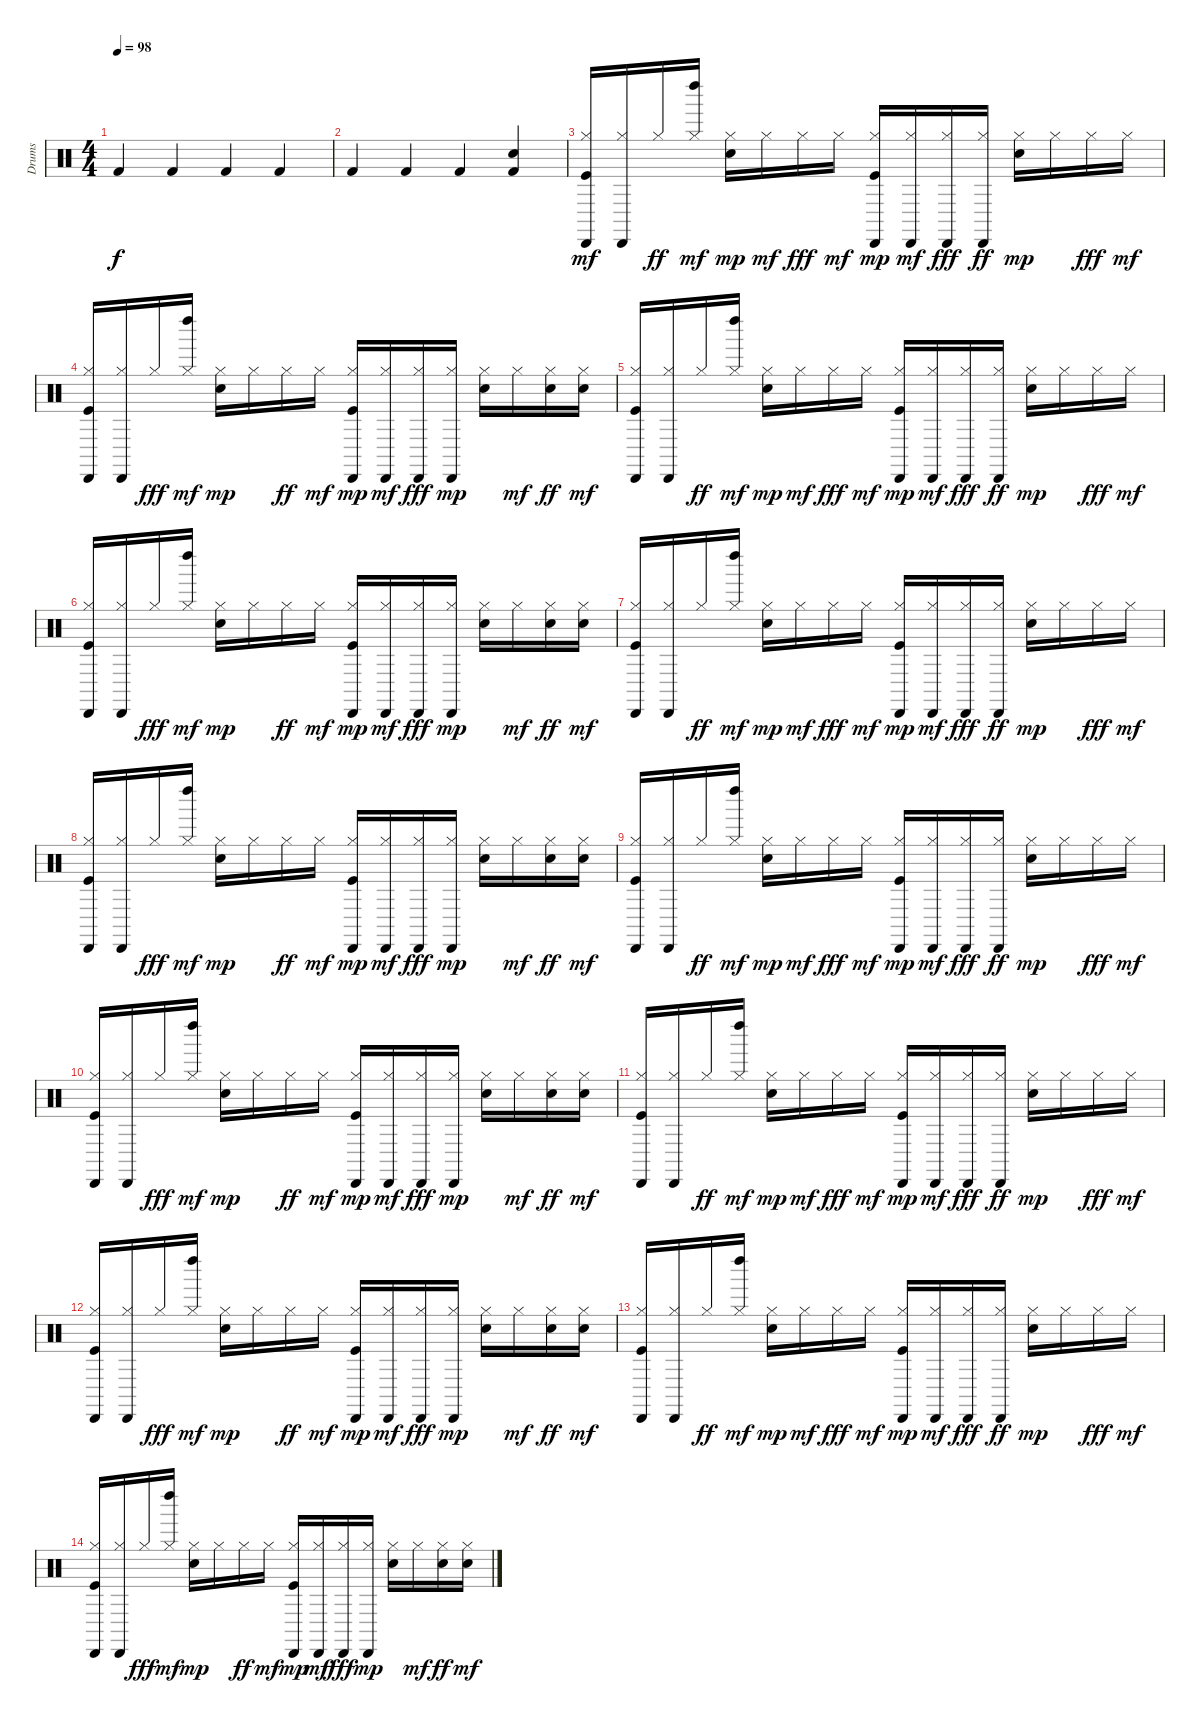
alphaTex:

\track ("Drums" "Drums") {instrument percussion}
\staff {score}
\articulation defaults
\ts (4 4)
\tempo 98
\clef neutral
\ks c "Kick (hit) 2".4{dy f} "Kick (hit) 2".4 "Kick (hit) 2".4 "Kick (hit) 2".4
|
"Kick (hit) 2".4 "Kick (hit) 2".4 "Kick (hit) 2".4 ("Kick (hit) 2" "Snare (hit) 2").4 |
("Kick (hit)" "Hi-Hat (closed)" "Cabasa (hit)").16{dy mf} ("Hi-Hat (closed)" "Cabasa (hit)").16 "Hi-Hat (closed)".16{dy ff} ("Hi-Hat (closed)" "Left Maraca (hit)").16{dy mf} ("Snare (hit) 2" "Hi-Hat (closed)").16{dy mp} "Hi-Hat (closed)".16{dy mf} "Hi-Hat (closed)".16{dy fff} "Hi-Hat (closed)".16{dy mf} ("Kick (hit)" "Cabasa (hit)" "Hi-Hat (closed)").16{dy mp} ("Cabasa (hit)" "Hi-Hat (closed)").16{dy mf} ("Hi-Hat (closed)" "Cabasa (hit)").16{dy fff} ("Hi-Hat (closed)" "Cabasa (hit)").16{dy ff} ("Snare (hit) 2" "Hi-Hat (closed)").16{dy mp} "Hi-Hat (closed)".16 "Hi-Hat (closed)".16{dy fff} "Hi-Hat (closed)".16{dy mf} |
("Kick (hit)" "Hi-Hat (closed)" "Cabasa (hit)").16 ("Hi-Hat (closed)" "Cabasa (hit)").16 "Hi-Hat (closed)".16{dy fff} ("Hi-Hat (closed)" "Left Maraca (hit)").16{dy mf} ("Snare (hit) 2" "Hi-Hat (closed)").16{dy mp} "Hi-Hat (closed)".16 "Hi-Hat (closed)".16{dy ff} "Hi-Hat (closed)".16{dy mf} ("Kick (hit)" "Cabasa (hit)" "Hi-Hat (closed)").16{dy mp} ("Cabasa (hit)" "Hi-Hat (closed)").16{dy mf} ("Hi-Hat (closed)" "Cabasa (hit)").16{dy fff} ("Cabasa (hit)" "Hi-Hat (closed)").16{dy mp} ("Snare (hit) 2" "Hi-Hat (closed)").16 "Hi-Hat (closed)".16{dy mf} ("Snare (hit) 2" "Hi-Hat (closed)").16{dy ff} ("Snare (hit) 2" "Hi-Hat (closed)").16{dy mf} |
("Kick (hit)" "Hi-Hat (closed)" "Cabasa (hit)").16 ("Hi-Hat (closed)" "Cabasa (hit)").16 "Hi-Hat (closed)".16{dy ff} ("Hi-Hat (closed)" "Left Maraca (hit)").16{dy mf} ("Snare (hit) 2" "Hi-Hat (closed)").16{dy mp} "Hi-Hat (closed)".16{dy mf} "Hi-Hat (closed)".16{dy fff} "Hi-Hat (closed)".16{dy mf} ("Kick (hit)" "Cabasa (hit)" "Hi-Hat (closed)").16{dy mp} ("Cabasa (hit)" "Hi-Hat (closed)").16{dy mf} ("Hi-Hat (closed)" "Cabasa (hit)").16{dy fff} ("Hi-Hat (closed)" "Cabasa (hit)").16{dy ff} ("Snare (hit) 2" "Hi-Hat (closed)").16{dy mp} "Hi-Hat (closed)".16 "Hi-Hat (closed)".16{dy fff} "Hi-Hat (closed)".16{dy mf} |
("Kick (hit)" "Hi-Hat (closed)" "Cabasa (hit)").16 ("Hi-Hat (closed)" "Cabasa (hit)").16 "Hi-Hat (closed)".16{dy fff} ("Hi-Hat (closed)" "Left Maraca (hit)").16{dy mf} ("Snare (hit) 2" "Hi-Hat (closed)").16{dy mp} "Hi-Hat (closed)".16 "Hi-Hat (closed)".16{dy ff} "Hi-Hat (closed)".16{dy mf} ("Kick (hit)" "Cabasa (hit)" "Hi-Hat (closed)").16{dy mp} ("Cabasa (hit)" "Hi-Hat (closed)").16{dy mf} ("Hi-Hat (closed)" "Cabasa (hit)").16{dy fff} ("Cabasa (hit)" "Hi-Hat (closed)").16{dy mp} ("Snare (hit) 2" "Hi-Hat (closed)").16 "Hi-Hat (closed)".16{dy mf} ("Snare (hit) 2" "Hi-Hat (closed)").16{dy ff} ("Snare (hit) 2" "Hi-Hat (closed)").16{dy mf} |
("Kick (hit)" "Hi-Hat (closed)" "Cabasa (hit)").16 ("Hi-Hat (closed)" "Cabasa (hit)").16 "Hi-Hat (closed)".16{dy ff} ("Hi-Hat (closed)" "Left Maraca (hit)").16{dy mf} ("Snare (hit) 2" "Hi-Hat (closed)").16{dy mp} "Hi-Hat (closed)".16{dy mf} "Hi-Hat (closed)".16{dy fff} "Hi-Hat (closed)".16{dy mf} ("Kick (hit)" "Cabasa (hit)" "Hi-Hat (closed)").16{dy mp} ("Cabasa (hit)" "Hi-Hat (closed)").16{dy mf} ("Hi-Hat (closed)" "Cabasa (hit)").16{dy fff} ("Hi-Hat (closed)" "Cabasa (hit)").16{dy ff} ("Snare (hit) 2" "Hi-Hat (closed)").16{dy mp} "Hi-Hat (closed)".16 "Hi-Hat (closed)".16{dy fff} "Hi-Hat (closed)".16{dy mf} |
("Kick (hit)" "Hi-Hat (closed)" "Cabasa (hit)").16 ("Hi-Hat (closed)" "Cabasa (hit)").16 "Hi-Hat (closed)".16{dy fff} ("Hi-Hat (closed)" "Left Maraca (hit)").16{dy mf} ("Snare (hit) 2" "Hi-Hat (closed)").16{dy mp} "Hi-Hat (closed)".16 "Hi-Hat (closed)".16{dy ff} "Hi-Hat (closed)".16{dy mf} ("Kick (hit)" "Cabasa (hit)" "Hi-Hat (closed)").16{dy mp} ("Cabasa (hit)" "Hi-Hat (closed)").16{dy mf} ("Hi-Hat (closed)" "Cabasa (hit)").16{dy fff} ("Cabasa (hit)" "Hi-Hat (closed)").16{dy mp} ("Snare (hit) 2" "Hi-Hat (closed)").16 "Hi-Hat (closed)".16{dy mf} ("Snare (hit) 2" "Hi-Hat (closed)").16{dy ff} ("Snare (hit) 2" "Hi-Hat (closed)").16{dy mf} |
("Kick (hit)" "Hi-Hat (closed)" "Cabasa (hit)").16 ("Hi-Hat (closed)" "Cabasa (hit)").16 "Hi-Hat (closed)".16{dy ff} ("Hi-Hat (closed)" "Left Maraca (hit)").16{dy mf} ("Snare (hit) 2" "Hi-Hat (closed)").16{dy mp} "Hi-Hat (closed)".16{dy mf} "Hi-Hat (closed)".16{dy fff} "Hi-Hat (closed)".16{dy mf} ("Kick (hit)" "Cabasa (hit)" "Hi-Hat (closed)").16{dy mp} ("Cabasa (hit)" "Hi-Hat (closed)").16{dy mf} ("Hi-Hat (closed)" "Cabasa (hit)").16{dy fff} ("Hi-Hat (closed)" "Cabasa (hit)").16{dy ff} ("Snare (hit) 2" "Hi-Hat (closed)").16{dy mp} "Hi-Hat (closed)".16 "Hi-Hat (closed)".16{dy fff} "Hi-Hat (closed)".16{dy mf} |
("Kick (hit)" "Hi-Hat (closed)" "Cabasa (hit)").16 ("Hi-Hat (closed)" "Cabasa (hit)").16 "Hi-Hat (closed)".16{dy fff} ("Hi-Hat (closed)" "Left Maraca (hit)").16{dy mf} ("Snare (hit) 2" "Hi-Hat (closed)").16{dy mp} "Hi-Hat (closed)".16 "Hi-Hat (closed)".16{dy ff} "Hi-Hat (closed)".16{dy mf} ("Kick (hit)" "Cabasa (hit)" "Hi-Hat (closed)").16{dy mp} ("Cabasa (hit)" "Hi-Hat (closed)").16{dy mf} ("Hi-Hat (closed)" "Cabasa (hit)").16{dy fff} ("Cabasa (hit)" "Hi-Hat (closed)").16{dy mp} ("Snare (hit) 2" "Hi-Hat (closed)").16 "Hi-Hat (closed)".16{dy mf} ("Snare (hit) 2" "Hi-Hat (closed)").16{dy ff} ("Snare (hit) 2" "Hi-Hat (closed)").16{dy mf} |
("Kick (hit)" "Hi-Hat (closed)" "Cabasa (hit)").16 ("Hi-Hat (closed)" "Cabasa (hit)").16 "Hi-Hat (closed)".16{dy ff} ("Hi-Hat (closed)" "Left Maraca (hit)").16{dy mf} ("Snare (hit) 2" "Hi-Hat (closed)").16{dy mp} "Hi-Hat (closed)".16{dy mf} "Hi-Hat (closed)".16{dy fff} "Hi-Hat (closed)".16{dy mf} ("Kick (hit)" "Cabasa (hit)" "Hi-Hat (closed)").16{dy mp} ("Cabasa (hit)" "Hi-Hat (closed)").16{dy mf} ("Hi-Hat (closed)" "Cabasa (hit)").16{dy fff} ("Hi-Hat (closed)" "Cabasa (hit)").16{dy ff} ("Snare (hit) 2" "Hi-Hat (closed)").16{dy mp} "Hi-Hat (closed)".16 "Hi-Hat (closed)".16{dy fff} "Hi-Hat (closed)".16{dy mf} |
("Kick (hit)" "Hi-Hat (closed)" "Cabasa (hit)").16 ("Hi-Hat (closed)" "Cabasa (hit)").16 "Hi-Hat (closed)".16{dy fff} ("Hi-Hat (closed)" "Left Maraca (hit)").16{dy mf} ("Snare (hit) 2" "Hi-Hat (closed)").16{dy mp} "Hi-Hat (closed)".16 "Hi-Hat (closed)".16{dy ff} "Hi-Hat (closed)".16{dy mf} ("Kick (hit)" "Cabasa (hit)" "Hi-Hat (closed)").16{dy mp volume 9} ("Cabasa (hit)" "Hi-Hat (closed)").16{dy mf} ("Hi-Hat (closed)" "Cabasa (hit)").16{dy fff} ("Cabasa (hit)" "Hi-Hat (closed)").16{dy mp} ("Snare (hit) 2" "Hi-Hat (closed)").16 "Hi-Hat (closed)".16{dy mf} ("Snare (hit) 2" "Hi-Hat (closed)").16{dy ff} ("Snare (hit) 2" "Hi-Hat (closed)").16{dy mf} |
("Kick (hit)" "Hi-Hat (closed)" "Cabasa (hit)").16{volume 7} ("Hi-Hat (closed)" "Cabasa (hit)").16 "Hi-Hat (closed)".16{dy ff} ("Hi-Hat (closed)" "Left Maraca (hit)").16{dy mf} ("Snare (hit) 2" "Hi-Hat (closed)").16{dy mp} "Hi-Hat (closed)".16{dy mf} "Hi-Hat (closed)".16{dy fff} "Hi-Hat (closed)".16{dy mf} ("Kick (hit)" "Cabasa (hit)" "Hi-Hat (closed)").16{dy mp volume 5} ("Cabasa (hit)" "Hi-Hat (closed)").16{dy mf} ("Hi-Hat (closed)" "Cabasa (hit)").16{dy fff} ("Hi-Hat (closed)" "Cabasa (hit)").16{dy ff} ("Snare (hit) 2" "Hi-Hat (closed)").16{dy mp} "Hi-Hat (closed)".16 "Hi-Hat (closed)".16{dy fff} "Hi-Hat (closed)".16{dy mf} |
("Kick (hit)" "Hi-Hat (closed)" "Cabasa (hit)").16{volume 3} ("Hi-Hat (closed)" "Cabasa (hit)").16 "Hi-Hat (closed)".16{dy fff} ("Hi-Hat (closed)" "Left Maraca (hit)").16{dy mf} ("Snare (hit) 2" "Hi-Hat (closed)").16{dy mp} "Hi-Hat (closed)".16 "Hi-Hat (closed)".16{dy ff} "Hi-Hat (closed)".16{dy mf} ("Kick (hit)" "Cabasa (hit)" "Hi-Hat (closed)").16{dy mp volume 1} ("Cabasa (hit)" "Hi-Hat (closed)").16{dy mf} ("Hi-Hat (closed)" "Cabasa (hit)").16{dy fff} ("Cabasa (hit)" "Hi-Hat (closed)").16{dy mp} ("Snare (hit) 2" "Hi-Hat (closed)").16 "Hi-Hat (closed)".16{dy mf} ("Snare (hit) 2" "Hi-Hat (closed)").16{dy ff} ("Snare (hit) 2" "Hi-Hat (closed)").16{dy mf}
